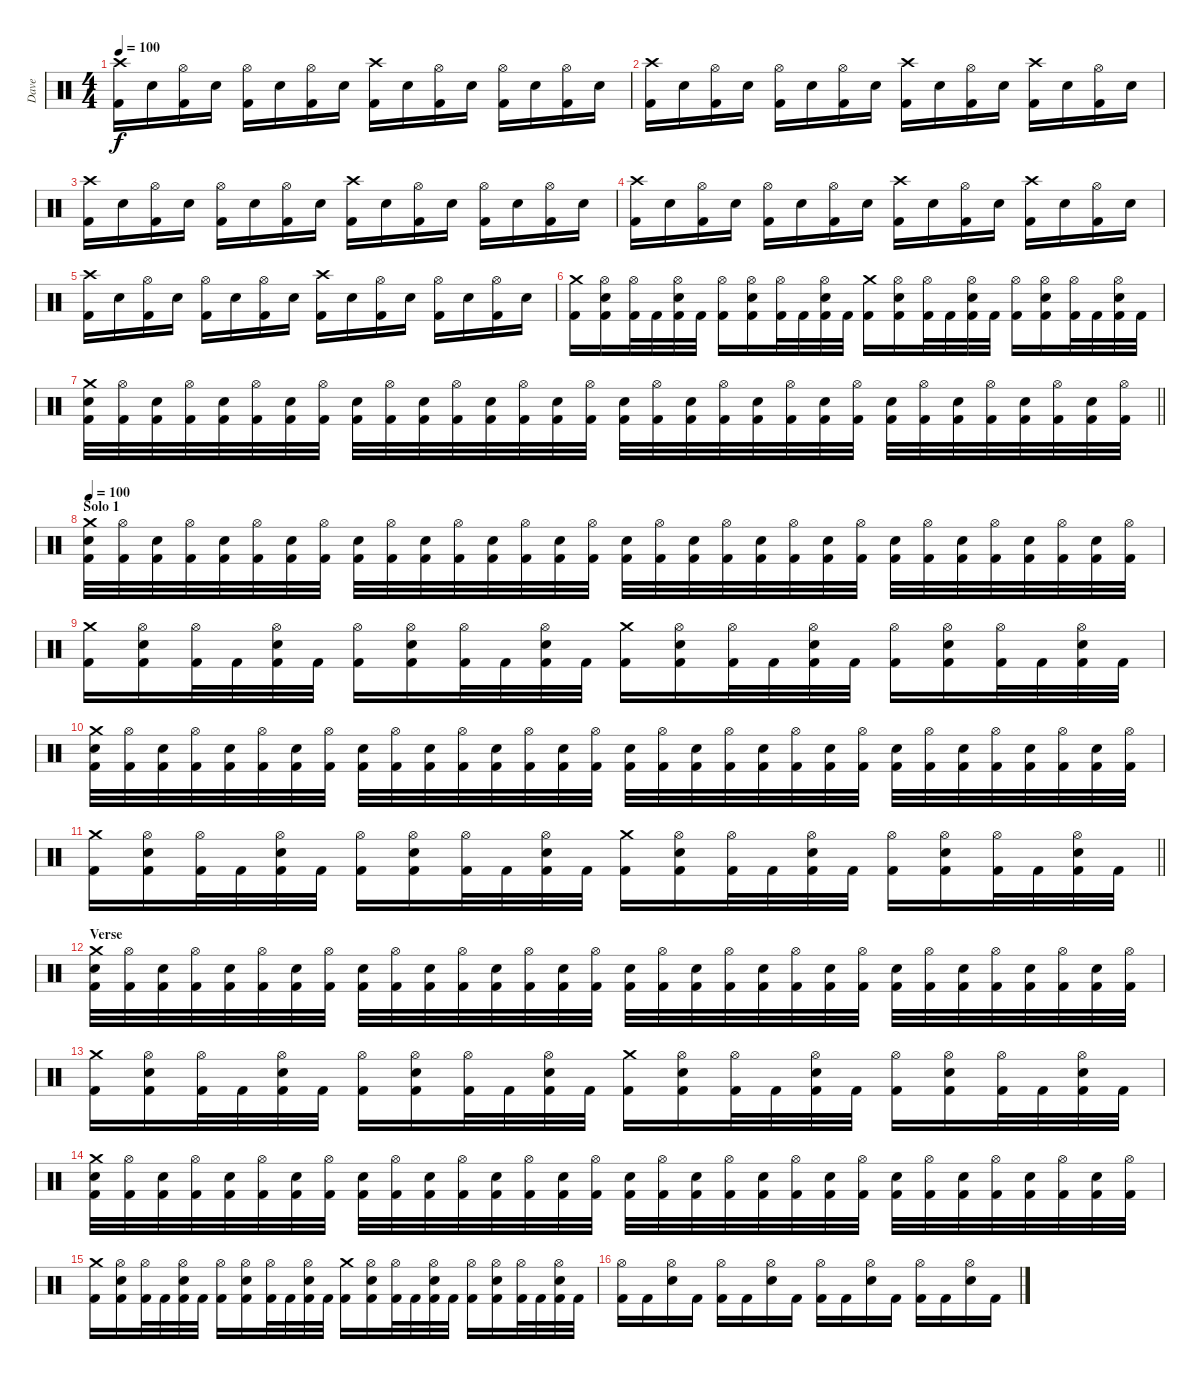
\track ("Dave" "Dave") {instrument percussion}
\staff {score}
\articulation defaults
\ts (4 4)
\tempo 100
\clef neutral
\ks c
("Crash high (hit)" "Kick (hit) 2").16{dy f} "Snare (hit) 2".16 ("Hi-Hat (open)" "Kick (hit) 2").16 "Snare (hit) 2".16 ("Hi-Hat (open)" "Kick (hit) 2").16 "Snare (hit) 2".16 ("Hi-Hat (open)" "Kick (hit) 2").16 "Snare (hit) 2".16 ("Crash high (hit)" "Kick (hit) 2").16 "Snare (hit) 2".16 ("Hi-Hat (open)" "Kick (hit) 2").16 "Snare (hit) 2".16 ("Hi-Hat (open)" "Kick (hit) 2").16 "Snare (hit) 2".16 ("Hi-Hat (open)" "Kick (hit) 2").16 "Snare (hit) 2".16 |
("Crash high (hit)" "Kick (hit) 2").16 "Snare (hit) 2".16 ("Hi-Hat (open)" "Kick (hit) 2").16 "Snare (hit) 2".16 ("Hi-Hat (open)" "Kick (hit) 2").16 "Snare (hit) 2".16 ("Hi-Hat (open)" "Kick (hit) 2").16 "Snare (hit) 2".16 ("Crash high (hit)" "Kick (hit) 2").16 "Snare (hit) 2".16 ("Hi-Hat (open)" "Kick (hit) 2").16 "Snare (hit) 2".16 ("Crash high (hit)" "Kick (hit) 2").16 "Snare (hit) 2".16 ("Hi-Hat (open)" "Kick (hit) 2").16 "Snare (hit) 2".16 |
("Crash high (hit)" "Kick (hit) 2").16 "Snare (hit) 2".16 ("Hi-Hat (open)" "Kick (hit) 2").16 "Snare (hit) 2".16 ("Hi-Hat (open)" "Kick (hit) 2").16 "Snare (hit) 2".16 ("Hi-Hat (open)" "Kick (hit) 2").16 "Snare (hit) 2".16 ("Crash high (hit)" "Kick (hit) 2").16 "Snare (hit) 2".16 ("Hi-Hat (open)" "Kick (hit) 2").16 "Snare (hit) 2".16 ("Hi-Hat (open)" "Kick (hit) 2").16 "Snare (hit) 2".16 ("Hi-Hat (open)" "Kick (hit) 2").16 "Snare (hit) 2".16 |
("Crash high (hit)" "Kick (hit) 2").16 "Snare (hit) 2".16 ("Hi-Hat (open)" "Kick (hit) 2").16 "Snare (hit) 2".16 ("Hi-Hat (open)" "Kick (hit) 2").16 "Snare (hit) 2".16 ("Hi-Hat (open)" "Kick (hit) 2").16 "Snare (hit) 2".16 ("Crash high (hit)" "Kick (hit) 2").16 "Snare (hit) 2".16 ("Hi-Hat (open)" "Kick (hit) 2").16 "Snare (hit) 2".16 ("Crash high (hit)" "Kick (hit) 2").16 "Snare (hit) 2".16 ("Hi-Hat (open)" "Kick (hit) 2").16 "Snare (hit) 2".16 |
("Crash high (hit)" "Kick (hit) 2").16 "Snare (hit) 2".16 ("Hi-Hat (open)" "Kick (hit) 2").16 "Snare (hit) 2".16 ("Hi-Hat (open)" "Kick (hit) 2").16 "Snare (hit) 2".16 ("Hi-Hat (open)" "Kick (hit) 2").16 "Snare (hit) 2".16 ("Crash high (hit)" "Kick (hit) 2").16 "Snare (hit) 2".16 ("Hi-Hat (open)" "Kick (hit) 2").16 "Snare (hit) 2".16 ("Hi-Hat (open)" "Kick (hit) 2").16 "Snare (hit) 2".16 ("Hi-Hat (open)" "Kick (hit) 2").16 "Snare (hit) 2".16 |
("Crash medium (hit)" "Kick (hit) 2").16 ("Hi-Hat (open)" "Snare (hit) 2" "Kick (hit) 2").16 ("Hi-Hat (open)" "Kick (hit) 2").32 "Kick (hit) 2".32 ("Hi-Hat (open)" "Snare (hit) 2" "Kick (hit) 2").32 "Kick (hit) 2".32 ("Hi-Hat (open)" "Kick (hit) 2").16 ("Hi-Hat (open)" "Snare (hit) 2" "Kick (hit) 2").16 ("Hi-Hat (open)" "Kick (hit) 2").32 "Kick (hit) 2".32 ("Hi-Hat (open)" "Snare (hit) 2" "Kick (hit) 2").32 "Kick (hit) 2".32 ("Crash medium (hit)" "Kick (hit) 2").16 ("Hi-Hat (open)" "Snare (hit) 2" "Kick (hit) 2").16 ("Hi-Hat (open)" "Kick (hit) 2").32 "Kick (hit) 2".32 ("Hi-Hat (open)" "Snare (hit) 2" "Kick (hit) 2").32 "Kick (hit) 2".32 ("Hi-Hat (open)" "Kick (hit) 2").16 ("Hi-Hat (open)" "Snare (hit) 2" "Kick (hit) 2").16 ("Hi-Hat (open)" "Kick (hit) 2").32 "Kick (hit) 2".32 ("Hi-Hat (open)" "Snare (hit) 2" "Kick (hit) 2").32 "Kick (hit) 2".32 |
\barLineRight lightlight
("Crash medium (hit)" "Snare (hit) 2" "Kick (hit) 2").32 ("Hi-Hat (open)" "Kick (hit) 2").32 ("Snare (hit) 2" "Kick (hit) 2").32 ("Hi-Hat (open)" "Kick (hit) 2").32 ("Snare (hit) 2" "Kick (hit) 2").32 ("Hi-Hat (open)" "Kick (hit) 2").32 ("Snare (hit) 2" "Kick (hit) 2").32 ("Hi-Hat (open)" "Kick (hit) 2").32 ("Snare (hit) 2" "Kick (hit) 2").32 ("Hi-Hat (open)" "Kick (hit) 2").32 ("Snare (hit) 2" "Kick (hit) 2").32 ("Hi-Hat (open)" "Kick (hit) 2").32 ("Snare (hit) 2" "Kick (hit) 2").32 ("Hi-Hat (open)" "Kick (hit) 2").32 ("Snare (hit) 2" "Kick (hit) 2").32 ("Hi-Hat (open)" "Kick (hit) 2").32 ("Snare (hit) 2" "Kick (hit) 2").32 ("Hi-Hat (open)" "Kick (hit) 2").32 ("Snare (hit) 2" "Kick (hit) 2").32 ("Hi-Hat (open)" "Kick (hit) 2").32 ("Snare (hit) 2" "Kick (hit) 2").32 ("Hi-Hat (open)" "Kick (hit) 2").32 ("Snare (hit) 2" "Kick (hit) 2").32 ("Hi-Hat (open)" "Kick (hit) 2").32 ("Snare (hit) 2" "Kick (hit) 2").32 ("Hi-Hat (open)" "Kick (hit) 2").32 ("Snare (hit) 2" "Kick (hit) 2").32 ("Hi-Hat (open)" "Kick (hit) 2").32 ("Snare (hit) 2" "Kick (hit) 2").32 ("Hi-Hat (open)" "Kick (hit) 2").32 ("Snare (hit) 2" "Kick (hit) 2").32 ("Hi-Hat (open)" "Kick (hit) 2").32 |
\section ("" "Solo 1")
\tempo 100
("Crash medium (hit)" "Snare (hit) 2" "Kick (hit) 2").32 ("Hi-Hat (open)" "Kick (hit) 2").32 ("Snare (hit) 2" "Kick (hit) 2").32 ("Hi-Hat (open)" "Kick (hit) 2").32 ("Snare (hit) 2" "Kick (hit) 2").32 ("Hi-Hat (open)" "Kick (hit) 2").32 ("Snare (hit) 2" "Kick (hit) 2").32 ("Hi-Hat (open)" "Kick (hit) 2").32 ("Snare (hit) 2" "Kick (hit) 2").32 ("Hi-Hat (open)" "Kick (hit) 2").32 ("Snare (hit) 2" "Kick (hit) 2").32 ("Hi-Hat (open)" "Kick (hit) 2").32 ("Snare (hit) 2" "Kick (hit) 2").32 ("Hi-Hat (open)" "Kick (hit) 2").32 ("Snare (hit) 2" "Kick (hit) 2").32 ("Hi-Hat (open)" "Kick (hit) 2").32 ("Snare (hit) 2" "Kick (hit) 2").32 ("Hi-Hat (open)" "Kick (hit) 2").32 ("Snare (hit) 2" "Kick (hit) 2").32 ("Hi-Hat (open)" "Kick (hit) 2").32 ("Snare (hit) 2" "Kick (hit) 2").32 ("Hi-Hat (open)" "Kick (hit) 2").32 ("Snare (hit) 2" "Kick (hit) 2").32 ("Hi-Hat (open)" "Kick (hit) 2").32 ("Snare (hit) 2" "Kick (hit) 2").32 ("Hi-Hat (open)" "Kick (hit) 2").32 ("Snare (hit) 2" "Kick (hit) 2").32 ("Hi-Hat (open)" "Kick (hit) 2").32 ("Snare (hit) 2" "Kick (hit) 2").32 ("Hi-Hat (open)" "Kick (hit) 2").32 ("Snare (hit) 2" "Kick (hit) 2").32 ("Hi-Hat (open)" "Kick (hit) 2").32 |
("Crash medium (hit)" "Kick (hit) 2").16 ("Hi-Hat (open)" "Snare (hit) 2" "Kick (hit) 2").16 ("Hi-Hat (open)" "Kick (hit) 2").32 "Kick (hit) 2".32 ("Hi-Hat (open)" "Snare (hit) 2" "Kick (hit) 2").32 "Kick (hit) 2".32 ("Hi-Hat (open)" "Kick (hit) 2").16 ("Hi-Hat (open)" "Snare (hit) 2" "Kick (hit) 2").16 ("Hi-Hat (open)" "Kick (hit) 2").32 "Kick (hit) 2".32 ("Hi-Hat (open)" "Snare (hit) 2" "Kick (hit) 2").32 "Kick (hit) 2".32 ("Crash medium (hit)" "Kick (hit) 2").16 ("Hi-Hat (open)" "Snare (hit) 2" "Kick (hit) 2").16 ("Hi-Hat (open)" "Kick (hit) 2").32 "Kick (hit) 2".32 ("Hi-Hat (open)" "Snare (hit) 2" "Kick (hit) 2").32 "Kick (hit) 2".32 ("Hi-Hat (open)" "Kick (hit) 2").16 ("Hi-Hat (open)" "Snare (hit) 2" "Kick (hit) 2").16 ("Hi-Hat (open)" "Kick (hit) 2").32 "Kick (hit) 2".32 ("Hi-Hat (open)" "Snare (hit) 2" "Kick (hit) 2").32 "Kick (hit) 2".32 |
("Crash medium (hit)" "Snare (hit) 2" "Kick (hit) 2").32 ("Hi-Hat (open)" "Kick (hit) 2").32 ("Snare (hit) 2" "Kick (hit) 2").32 ("Hi-Hat (open)" "Kick (hit) 2").32 ("Snare (hit) 2" "Kick (hit) 2").32 ("Hi-Hat (open)" "Kick (hit) 2").32 ("Snare (hit) 2" "Kick (hit) 2").32 ("Hi-Hat (open)" "Kick (hit) 2").32 ("Snare (hit) 2" "Kick (hit) 2").32 ("Hi-Hat (open)" "Kick (hit) 2").32 ("Snare (hit) 2" "Kick (hit) 2").32 ("Hi-Hat (open)" "Kick (hit) 2").32 ("Snare (hit) 2" "Kick (hit) 2").32 ("Hi-Hat (open)" "Kick (hit) 2").32 ("Snare (hit) 2" "Kick (hit) 2").32 ("Hi-Hat (open)" "Kick (hit) 2").32 ("Snare (hit) 2" "Kick (hit) 2").32 ("Hi-Hat (open)" "Kick (hit) 2").32 ("Snare (hit) 2" "Kick (hit) 2").32 ("Hi-Hat (open)" "Kick (hit) 2").32 ("Snare (hit) 2" "Kick (hit) 2").32 ("Hi-Hat (open)" "Kick (hit) 2").32 ("Snare (hit) 2" "Kick (hit) 2").32 ("Hi-Hat (open)" "Kick (hit) 2").32 ("Snare (hit) 2" "Kick (hit) 2").32 ("Hi-Hat (open)" "Kick (hit) 2").32 ("Snare (hit) 2" "Kick (hit) 2").32 ("Hi-Hat (open)" "Kick (hit) 2").32 ("Snare (hit) 2" "Kick (hit) 2").32 ("Hi-Hat (open)" "Kick (hit) 2").32 ("Snare (hit) 2" "Kick (hit) 2").32 ("Hi-Hat (open)" "Kick (hit) 2").32 |
\barLineRight lightlight
("Crash medium (hit)" "Kick (hit) 2").16 ("Hi-Hat (open)" "Snare (hit) 2" "Kick (hit) 2").16 ("Hi-Hat (open)" "Kick (hit) 2").32 "Kick (hit) 2".32 ("Hi-Hat (open)" "Snare (hit) 2" "Kick (hit) 2").32 "Kick (hit) 2".32 ("Hi-Hat (open)" "Kick (hit) 2").16 ("Hi-Hat (open)" "Snare (hit) 2" "Kick (hit) 2").16 ("Hi-Hat (open)" "Kick (hit) 2").32 "Kick (hit) 2".32 ("Hi-Hat (open)" "Snare (hit) 2" "Kick (hit) 2").32 "Kick (hit) 2".32 ("Crash medium (hit)" "Kick (hit) 2").16 ("Hi-Hat (open)" "Snare (hit) 2" "Kick (hit) 2").16 ("Hi-Hat (open)" "Kick (hit) 2").32 "Kick (hit) 2".32 ("Hi-Hat (open)" "Snare (hit) 2" "Kick (hit) 2").32 "Kick (hit) 2".32 ("Hi-Hat (open)" "Kick (hit) 2").16 ("Hi-Hat (open)" "Snare (hit) 2" "Kick (hit) 2").16 ("Hi-Hat (open)" "Kick (hit) 2").32 "Kick (hit) 2".32 ("Hi-Hat (open)" "Snare (hit) 2" "Kick (hit) 2").32 "Kick (hit) 2".32 |
\section ("" "Verse")
("Crash medium (hit)" "Snare (hit) 2" "Kick (hit) 2").32 ("Hi-Hat (open)" "Kick (hit) 2").32 ("Snare (hit) 2" "Kick (hit) 2").32 ("Hi-Hat (open)" "Kick (hit) 2").32 ("Snare (hit) 2" "Kick (hit) 2").32 ("Hi-Hat (open)" "Kick (hit) 2").32 ("Snare (hit) 2" "Kick (hit) 2").32 ("Hi-Hat (open)" "Kick (hit) 2").32 ("Snare (hit) 2" "Kick (hit) 2").32 ("Hi-Hat (open)" "Kick (hit) 2").32 ("Snare (hit) 2" "Kick (hit) 2").32 ("Hi-Hat (open)" "Kick (hit) 2").32 ("Snare (hit) 2" "Kick (hit) 2").32 ("Hi-Hat (open)" "Kick (hit) 2").32 ("Snare (hit) 2" "Kick (hit) 2").32 ("Hi-Hat (open)" "Kick (hit) 2").32 ("Snare (hit) 2" "Kick (hit) 2").32 ("Hi-Hat (open)" "Kick (hit) 2").32 ("Snare (hit) 2" "Kick (hit) 2").32 ("Hi-Hat (open)" "Kick (hit) 2").32 ("Snare (hit) 2" "Kick (hit) 2").32 ("Hi-Hat (open)" "Kick (hit) 2").32 ("Snare (hit) 2" "Kick (hit) 2").32 ("Hi-Hat (open)" "Kick (hit) 2").32 ("Snare (hit) 2" "Kick (hit) 2").32 ("Hi-Hat (open)" "Kick (hit) 2").32 ("Snare (hit) 2" "Kick (hit) 2").32 ("Hi-Hat (open)" "Kick (hit) 2").32 ("Snare (hit) 2" "Kick (hit) 2").32 ("Hi-Hat (open)" "Kick (hit) 2").32 ("Snare (hit) 2" "Kick (hit) 2").32 ("Hi-Hat (open)" "Kick (hit) 2").32 |
("Crash medium (hit)" "Kick (hit) 2").16 ("Hi-Hat (open)" "Snare (hit) 2" "Kick (hit) 2").16 ("Hi-Hat (open)" "Kick (hit) 2").32 "Kick (hit) 2".32 ("Hi-Hat (open)" "Snare (hit) 2" "Kick (hit) 2").32 "Kick (hit) 2".32 ("Hi-Hat (open)" "Kick (hit) 2").16 ("Hi-Hat (open)" "Snare (hit) 2" "Kick (hit) 2").16 ("Hi-Hat (open)" "Kick (hit) 2").32 "Kick (hit) 2".32 ("Hi-Hat (open)" "Snare (hit) 2" "Kick (hit) 2").32 "Kick (hit) 2".32 ("Crash medium (hit)" "Kick (hit) 2").16 ("Hi-Hat (open)" "Snare (hit) 2" "Kick (hit) 2").16 ("Hi-Hat (open)" "Kick (hit) 2").32 "Kick (hit) 2".32 ("Hi-Hat (open)" "Snare (hit) 2" "Kick (hit) 2").32 "Kick (hit) 2".32 ("Hi-Hat (open)" "Kick (hit) 2").16 ("Hi-Hat (open)" "Snare (hit) 2" "Kick (hit) 2").16 ("Hi-Hat (open)" "Kick (hit) 2").32 "Kick (hit) 2".32 ("Hi-Hat (open)" "Snare (hit) 2" "Kick (hit) 2").32 "Kick (hit) 2".32 |
("Crash medium (hit)" "Snare (hit) 2" "Kick (hit) 2").32 ("Hi-Hat (open)" "Kick (hit) 2").32 ("Snare (hit) 2" "Kick (hit) 2").32 ("Hi-Hat (open)" "Kick (hit) 2").32 ("Snare (hit) 2" "Kick (hit) 2").32 ("Hi-Hat (open)" "Kick (hit) 2").32 ("Snare (hit) 2" "Kick (hit) 2").32 ("Hi-Hat (open)" "Kick (hit) 2").32 ("Snare (hit) 2" "Kick (hit) 2").32 ("Hi-Hat (open)" "Kick (hit) 2").32 ("Snare (hit) 2" "Kick (hit) 2").32 ("Hi-Hat (open)" "Kick (hit) 2").32 ("Snare (hit) 2" "Kick (hit) 2").32 ("Hi-Hat (open)" "Kick (hit) 2").32 ("Snare (hit) 2" "Kick (hit) 2").32 ("Hi-Hat (open)" "Kick (hit) 2").32 ("Snare (hit) 2" "Kick (hit) 2").32 ("Hi-Hat (open)" "Kick (hit) 2").32 ("Snare (hit) 2" "Kick (hit) 2").32 ("Hi-Hat (open)" "Kick (hit) 2").32 ("Snare (hit) 2" "Kick (hit) 2").32 ("Hi-Hat (open)" "Kick (hit) 2").32 ("Snare (hit) 2" "Kick (hit) 2").32 ("Hi-Hat (open)" "Kick (hit) 2").32 ("Snare (hit) 2" "Kick (hit) 2").32 ("Hi-Hat (open)" "Kick (hit) 2").32 ("Snare (hit) 2" "Kick (hit) 2").32 ("Hi-Hat (open)" "Kick (hit) 2").32 ("Snare (hit) 2" "Kick (hit) 2").32 ("Hi-Hat (open)" "Kick (hit) 2").32 ("Snare (hit) 2" "Kick (hit) 2").32 ("Hi-Hat (open)" "Kick (hit) 2").32 |
("Crash medium (hit)" "Kick (hit) 2").16 ("Hi-Hat (open)" "Snare (hit) 2" "Kick (hit) 2").16 ("Hi-Hat (open)" "Kick (hit) 2").32 "Kick (hit) 2".32 ("Hi-Hat (open)" "Snare (hit) 2" "Kick (hit) 2").32 "Kick (hit) 2".32 ("Hi-Hat (open)" "Kick (hit) 2").16 ("Hi-Hat (open)" "Snare (hit) 2" "Kick (hit) 2").16 ("Hi-Hat (open)" "Kick (hit) 2").32 "Kick (hit) 2".32 ("Hi-Hat (open)" "Snare (hit) 2" "Kick (hit) 2").32 "Kick (hit) 2".32 ("Crash medium (hit)" "Kick (hit) 2").16 ("Hi-Hat (open)" "Snare (hit) 2" "Kick (hit) 2").16 ("Hi-Hat (open)" "Kick (hit) 2").32 "Kick (hit) 2".32 ("Hi-Hat (open)" "Snare (hit) 2" "Kick (hit) 2").32 "Kick (hit) 2".32 ("Hi-Hat (open)" "Kick (hit) 2").16 ("Hi-Hat (open)" "Snare (hit) 2" "Kick (hit) 2").16 ("Hi-Hat (open)" "Kick (hit) 2").32 "Kick (hit) 2".32 ("Hi-Hat (open)" "Snare (hit) 2" "Kick (hit) 2").32 "Kick (hit) 2".32 |
("Hi-Hat (open)" "Kick (hit) 2").16 "Kick (hit) 2".16 ("Hi-Hat (open)" "Snare (hit) 2").16 "Kick (hit) 2".16 ("Hi-Hat (open)" "Kick (hit) 2").16 "Kick (hit) 2".16 ("Hi-Hat (open)" "Snare (hit) 2").16 "Kick (hit) 2".16 ("Hi-Hat (open)" "Kick (hit) 2").16 "Kick (hit) 2".16 ("Hi-Hat (open)" "Snare (hit) 2").16 "Kick (hit) 2".16 ("Hi-Hat (open)" "Kick (hit) 2").16 "Kick (hit) 2".16 ("Hi-Hat (open)" "Snare (hit) 2").16 "Kick (hit) 2".16
